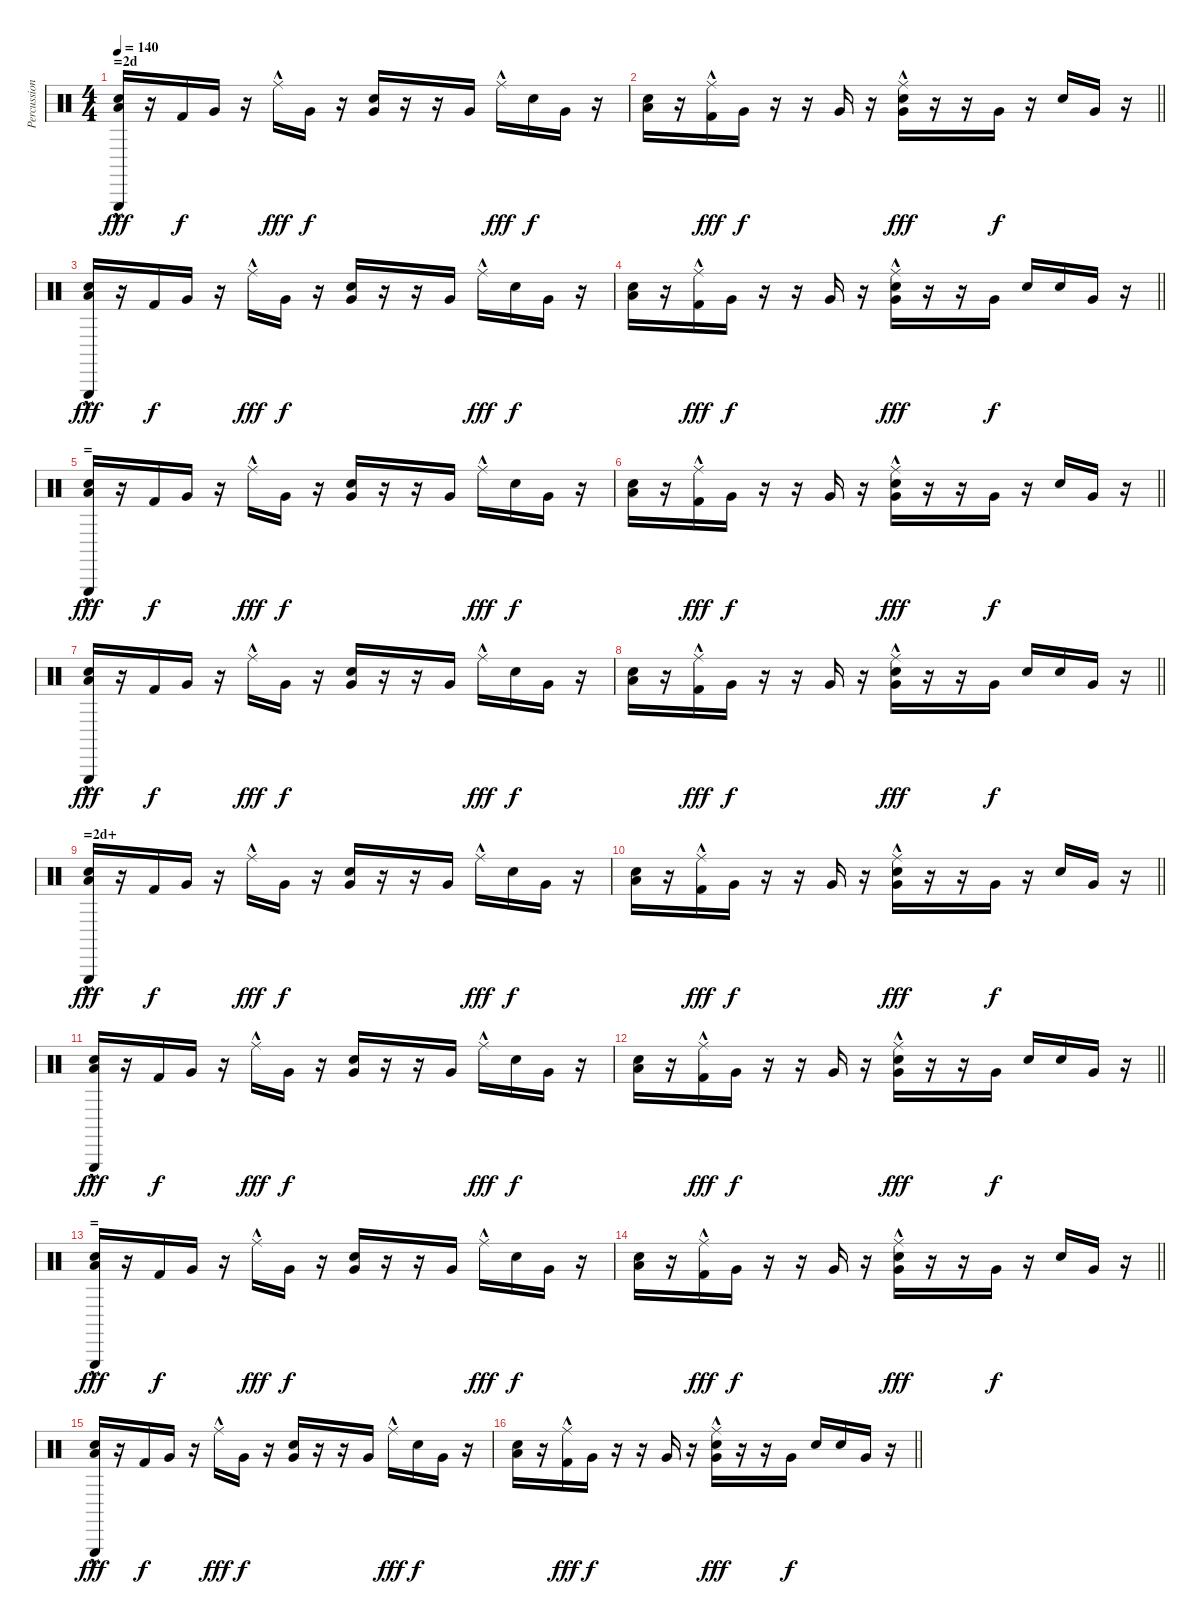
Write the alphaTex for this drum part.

\track ("Percussion" "Percussion") {instrument percussion}
\staff {score}
\articulation defaults
\ts (4 4)
\section ("" "=2d")
\tempo 140
\clef neutral
\ks c
("Low Floor Tom (hit)" "Electric Snare (hit)" "Triangle (hit)"{hac}).16{dy fff} r.16 "Kick (hit) 2".16{dy f} "Very Low Tom (hit)".16 r.16 "Ride (middle)"{hac}.16{dy fff} "Very Low Tom (hit)".16{dy f} r.16 ("Very Low Tom (hit)" "Electric Snare (hit)").16 r.16 r.16 "Very Low Tom (hit)".16 "Ride (middle)"{hac}.16{dy fff} "Electric Snare (hit)".16{dy f} "Very Low Tom (hit)".16 r.16 |
\barLineRight lightlight
("Low Floor Tom (hit)" "Electric Snare (hit)").16 r.16 ("Kick (hit) 2" "Ride (middle)"{hac}).16{dy fff} "Very Low Tom (hit)".16{dy f} r.16 r.16 "Very Low Tom (hit)".16 r.16 ("Very Low Tom (hit)" "Electric Snare (hit)" "Ride (middle)"{hac}).16{dy fff} r.16 r.16 "Very Low Tom (hit)".16{dy f} r.16 "Electric Snare (hit)".16 "Very Low Tom (hit)".16 r.16 |
("Low Floor Tom (hit)" "Electric Snare (hit)" "Triangle (hit)"{hac}).16{dy fff} r.16 "Kick (hit) 2".16{dy f} "Very Low Tom (hit)".16 r.16 "Ride (middle)"{hac}.16{dy fff} "Very Low Tom (hit)".16{dy f} r.16 ("Very Low Tom (hit)" "Electric Snare (hit)").16 r.16 r.16 "Very Low Tom (hit)".16 "Ride (middle)"{hac}.16{dy fff} "Electric Snare (hit)".16{dy f} "Very Low Tom (hit)".16 r.16 |
\barLineRight lightlight
("Low Floor Tom (hit)" "Electric Snare (hit)").16 r.16 ("Kick (hit) 2" "Ride (middle)"{hac}).16{dy fff} "Very Low Tom (hit)".16{dy f} r.16 r.16 "Very Low Tom (hit)".16 r.16 ("Very Low Tom (hit)" "Electric Snare (hit)" "Ride (middle)"{hac}).16{dy fff} r.16 r.16 "Very Low Tom (hit)".16{dy f} "Electric Snare (hit)".16 "Electric Snare (hit)".16 "Very Low Tom (hit)".16 r.16 |
\section ("" "=")
("Low Floor Tom (hit)" "Electric Snare (hit)" "Triangle (hit)"{hac}).16{dy fff} r.16 "Kick (hit) 2".16{dy f} "Very Low Tom (hit)".16 r.16 "Ride (middle)"{hac}.16{dy fff} "Very Low Tom (hit)".16{dy f} r.16 ("Very Low Tom (hit)" "Electric Snare (hit)").16 r.16 r.16 "Very Low Tom (hit)".16 "Ride (middle)"{hac}.16{dy fff} "Electric Snare (hit)".16{dy f} "Very Low Tom (hit)".16 r.16 |
\barLineRight lightlight
("Low Floor Tom (hit)" "Electric Snare (hit)").16 r.16 ("Kick (hit) 2" "Ride (middle)"{hac}).16{dy fff} "Very Low Tom (hit)".16{dy f} r.16 r.16 "Very Low Tom (hit)".16 r.16 ("Very Low Tom (hit)" "Electric Snare (hit)" "Ride (middle)"{hac}).16{dy fff} r.16 r.16 "Very Low Tom (hit)".16{dy f} r.16 "Electric Snare (hit)".16 "Very Low Tom (hit)".16 r.16 |
("Low Floor Tom (hit)" "Electric Snare (hit)" "Triangle (hit)"{hac}).16{dy fff} r.16 "Kick (hit) 2".16{dy f} "Very Low Tom (hit)".16 r.16 "Ride (middle)"{hac}.16{dy fff} "Very Low Tom (hit)".16{dy f} r.16 ("Very Low Tom (hit)" "Electric Snare (hit)").16 r.16 r.16 "Very Low Tom (hit)".16 "Ride (middle)"{hac}.16{dy fff} "Electric Snare (hit)".16{dy f} "Very Low Tom (hit)".16 r.16 |
\barLineRight lightlight
("Low Floor Tom (hit)" "Electric Snare (hit)").16 r.16 ("Kick (hit) 2" "Ride (middle)"{hac}).16{dy fff} "Very Low Tom (hit)".16{dy f} r.16 r.16 "Very Low Tom (hit)".16 r.16 ("Very Low Tom (hit)" "Electric Snare (hit)" "Ride (middle)"{hac}).16{dy fff} r.16 r.16 "Very Low Tom (hit)".16{dy f} "Electric Snare (hit)".16 "Electric Snare (hit)".16 "Very Low Tom (hit)".16 r.16 |
\section ("" "=2d+")
("Low Floor Tom (hit)" "Electric Snare (hit)" "Triangle (hit)"{hac}).16{dy fff} r.16 "Kick (hit) 2".16{dy f} "Very Low Tom (hit)".16 r.16 "Ride (middle)"{hac}.16{dy fff} "Very Low Tom (hit)".16{dy f} r.16 ("Very Low Tom (hit)" "Electric Snare (hit)").16 r.16 r.16 "Very Low Tom (hit)".16 "Ride (middle)"{hac}.16{dy fff} "Electric Snare (hit)".16{dy f} "Very Low Tom (hit)".16 r.16 |
\barLineRight lightlight
("Low Floor Tom (hit)" "Electric Snare (hit)").16 r.16 ("Kick (hit) 2" "Ride (middle)"{hac}).16{dy fff} "Very Low Tom (hit)".16{dy f} r.16 r.16 "Very Low Tom (hit)".16 r.16 ("Very Low Tom (hit)" "Electric Snare (hit)" "Ride (middle)"{hac}).16{dy fff} r.16 r.16 "Very Low Tom (hit)".16{dy f} r.16 "Electric Snare (hit)".16 "Very Low Tom (hit)".16 r.16 |
("Low Floor Tom (hit)" "Electric Snare (hit)" "Triangle (hit)"{hac}).16{dy fff} r.16 "Kick (hit) 2".16{dy f} "Very Low Tom (hit)".16 r.16 "Ride (middle)"{hac}.16{dy fff} "Very Low Tom (hit)".16{dy f} r.16 ("Very Low Tom (hit)" "Electric Snare (hit)").16 r.16 r.16 "Very Low Tom (hit)".16 "Ride (middle)"{hac}.16{dy fff} "Electric Snare (hit)".16{dy f} "Very Low Tom (hit)".16 r.16 |
\barLineRight lightlight
("Low Floor Tom (hit)" "Electric Snare (hit)").16 r.16 ("Kick (hit) 2" "Ride (middle)"{hac}).16{dy fff} "Very Low Tom (hit)".16{dy f} r.16 r.16 "Very Low Tom (hit)".16 r.16 ("Very Low Tom (hit)" "Electric Snare (hit)" "Ride (middle)"{hac}).16{dy fff} r.16 r.16 "Very Low Tom (hit)".16{dy f} "Electric Snare (hit)".16 "Electric Snare (hit)".16 "Very Low Tom (hit)".16 r.16 |
\section ("" "=")
("Low Floor Tom (hit)" "Electric Snare (hit)" "Triangle (hit)"{hac}).16{dy fff} r.16 "Kick (hit) 2".16{dy f} "Very Low Tom (hit)".16 r.16 "Ride (middle)"{hac}.16{dy fff} "Very Low Tom (hit)".16{dy f} r.16 ("Very Low Tom (hit)" "Electric Snare (hit)").16 r.16 r.16 "Very Low Tom (hit)".16 "Ride (middle)"{hac}.16{dy fff} "Electric Snare (hit)".16{dy f} "Very Low Tom (hit)".16 r.16 |
\barLineRight lightlight
("Low Floor Tom (hit)" "Electric Snare (hit)").16 r.16 ("Kick (hit) 2" "Ride (middle)"{hac}).16{dy fff} "Very Low Tom (hit)".16{dy f} r.16 r.16 "Very Low Tom (hit)".16 r.16 ("Very Low Tom (hit)" "Electric Snare (hit)" "Ride (middle)"{hac}).16{dy fff} r.16 r.16 "Very Low Tom (hit)".16{dy f} r.16 "Electric Snare (hit)".16 "Very Low Tom (hit)".16 r.16 |
("Low Floor Tom (hit)" "Electric Snare (hit)" "Triangle (hit)"{hac}).16{dy fff} r.16 "Kick (hit) 2".16{dy f} "Very Low Tom (hit)".16 r.16 "Ride (middle)"{hac}.16{dy fff} "Very Low Tom (hit)".16{dy f} r.16 ("Very Low Tom (hit)" "Electric Snare (hit)").16 r.16 r.16 "Very Low Tom (hit)".16 "Ride (middle)"{hac}.16{dy fff} "Electric Snare (hit)".16{dy f} "Very Low Tom (hit)".16 r.16 |
\barLineRight lightlight
("Low Floor Tom (hit)" "Electric Snare (hit)").16 r.16 ("Kick (hit) 2" "Ride (middle)"{hac}).16{dy fff} "Very Low Tom (hit)".16{dy f} r.16 r.16 "Very Low Tom (hit)".16 r.16 ("Very Low Tom (hit)" "Electric Snare (hit)" "Ride (middle)"{hac}).16{dy fff} r.16 r.16 "Very Low Tom (hit)".16{dy f} "Electric Snare (hit)".16 "Electric Snare (hit)".16 "Very Low Tom (hit)".16 r.16
